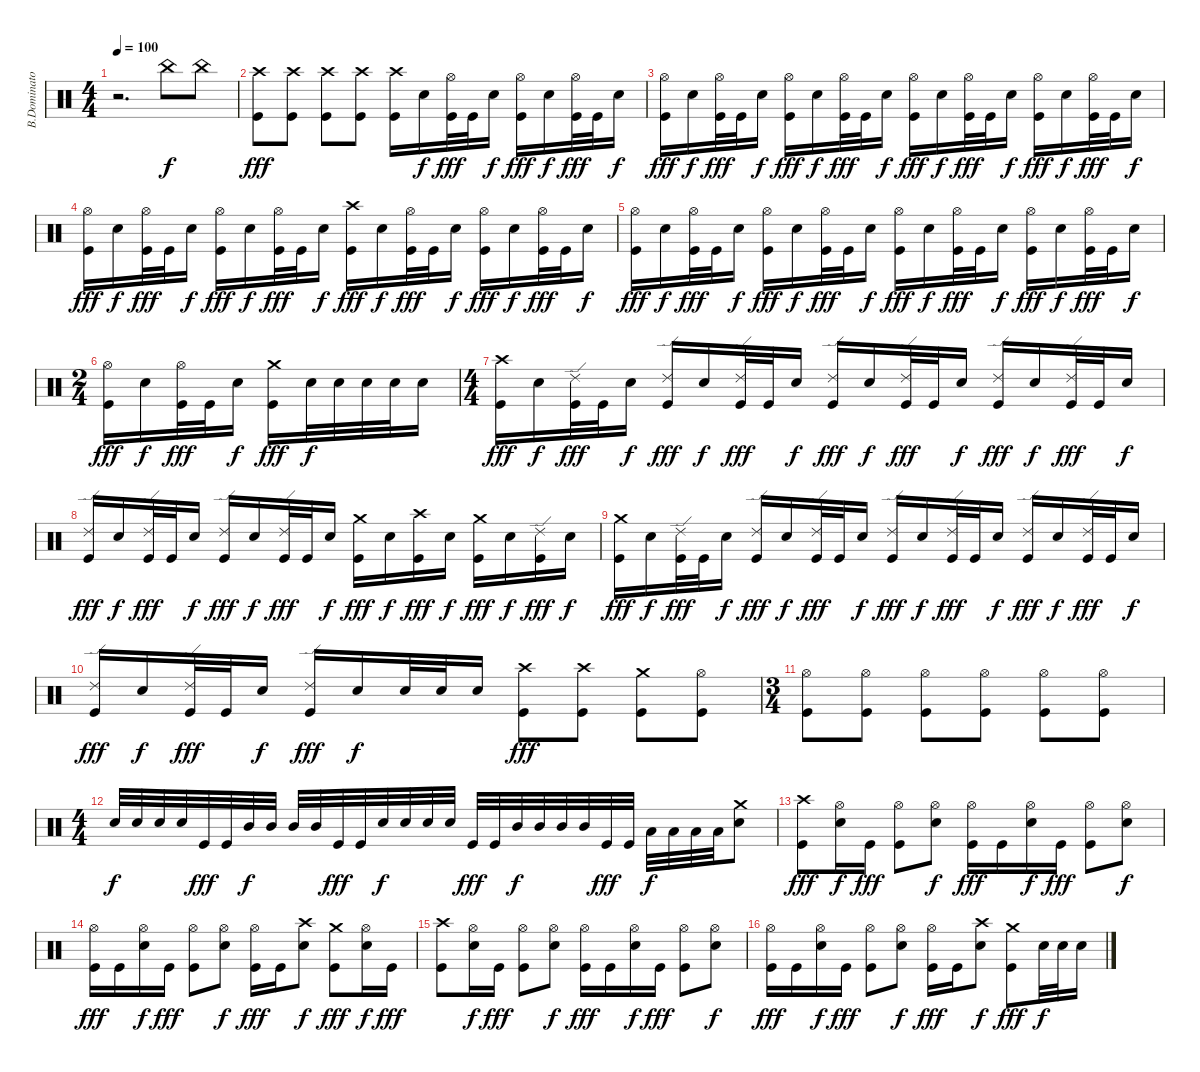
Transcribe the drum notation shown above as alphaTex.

\track ("B.Dominator" "B.Dominato") {instrument percussion}
\staff {score}
\articulation defaults
\ts (4 4)
\tempo 100
\clef neutral
\ks c
r.2{d dy f} "China (hit)".8 "China (hit)".8 |
("Crash high (hit)" "Kick (hit)").8{dy fff} ("Crash high (hit)" "Kick (hit)").8 ("Crash high (hit)" "Kick (hit)").8 ("Crash high (hit)" "Kick (hit)").8 ("Crash high (hit)" "Kick (hit)").16 "Snare (hit) 2".16{dy f} ("Hi-Hat (open)" "Kick (hit)").32{dy fff} "Kick (hit)".32 "Snare (hit) 2".16{dy f} ("Hi-Hat (open)" "Kick (hit)").16{dy fff} "Snare (hit) 2".16{dy f} ("Hi-Hat (open)" "Kick (hit)").32{dy fff} "Kick (hit)".32 "Snare (hit) 2".16{dy f} |
("Hi-Hat (open)" "Kick (hit)").16{dy fff} "Snare (hit) 2".16{dy f} ("Hi-Hat (open)" "Kick (hit)").32{dy fff} "Kick (hit)".32 "Snare (hit) 2".16{dy f} ("Hi-Hat (open)" "Kick (hit)").16{dy fff} "Snare (hit) 2".16{dy f} ("Hi-Hat (open)" "Kick (hit)").32{dy fff} "Kick (hit)".32 "Snare (hit) 2".16{dy f} ("Hi-Hat (open)" "Kick (hit)").16{dy fff} "Snare (hit) 2".16{dy f} ("Hi-Hat (open)" "Kick (hit)").32{dy fff} "Kick (hit)".32 "Snare (hit) 2".16{dy f} ("Hi-Hat (open)" "Kick (hit)").16{dy fff} "Snare (hit) 2".16{dy f} ("Hi-Hat (open)" "Kick (hit)").32{dy fff} "Kick (hit)".32 "Snare (hit) 2".16{dy f} |
("Hi-Hat (open)" "Kick (hit)").16{dy fff} "Snare (hit) 2".16{dy f} ("Hi-Hat (open)" "Kick (hit)").32{dy fff} "Kick (hit)".32 "Snare (hit) 2".16{dy f} ("Hi-Hat (open)" "Kick (hit)").16{dy fff} "Snare (hit) 2".16{dy f} ("Hi-Hat (open)" "Kick (hit)").32{dy fff} "Kick (hit)".32 "Snare (hit) 2".16{dy f} ("Crash high (hit)" "Kick (hit)").16{dy fff} "Snare (hit) 2".16{dy f} ("Hi-Hat (open)" "Kick (hit)").32{dy fff} "Kick (hit)".32 "Snare (hit) 2".16{dy f} ("Hi-Hat (open)" "Kick (hit)").16{dy fff} "Snare (hit) 2".16{dy f} ("Hi-Hat (open)" "Kick (hit)").32{dy fff} "Kick (hit)".32 "Snare (hit) 2".16{dy f} |
("Hi-Hat (open)" "Kick (hit)").16{dy fff} "Snare (hit) 2".16{dy f} ("Hi-Hat (open)" "Kick (hit)").32{dy fff} "Kick (hit)".32 "Snare (hit) 2".16{dy f} ("Hi-Hat (open)" "Kick (hit)").16{dy fff} "Snare (hit) 2".16{dy f} ("Hi-Hat (open)" "Kick (hit)").32{dy fff} "Kick (hit)".32 "Snare (hit) 2".16{dy f} ("Hi-Hat (open)" "Kick (hit)").16{dy fff} "Snare (hit) 2".16{dy f} ("Hi-Hat (open)" "Kick (hit)").32{dy fff} "Kick (hit)".32 "Snare (hit) 2".16{dy f} ("Hi-Hat (open)" "Kick (hit)").16{dy fff} "Snare (hit) 2".16{dy f} ("Hi-Hat (open)" "Kick (hit)").32{dy fff} "Kick (hit)".32 "Snare (hit) 2".16{dy f} |
\ts (2 4)
("Hi-Hat (open)" "Kick (hit)").16{dy fff} "Snare (hit) 2".16{dy f} ("Hi-Hat (open)" "Kick (hit)").32{dy fff} "Kick (hit)".32 "Snare (hit) 2".16{dy f} ("Crash medium (hit)" "Kick (hit)").16{dy fff} "Snare (hit) 2".32{dy f} "Snare (hit) 2".32 "Snare (hit) 2".32 "Snare (hit) 2".32 "Snare (hit) 2".16 |
\ts (4 4)
("Crash high (hit)" "Kick (hit)").16{dy fff} "Snare (hit) 2".16{dy f} ("Ride (edge) 2" "Kick (hit)").32{dy fff} "Kick (hit)".32 "Snare (hit) 2".16{dy f} ("Ride (edge) 2" "Kick (hit)").16{dy fff} "Snare (hit) 2".16{dy f} ("Ride (edge) 2" "Kick (hit)").32{dy fff} "Kick (hit)".32 "Snare (hit) 2".16{dy f} ("Ride (edge) 2" "Kick (hit)").16{dy fff} "Snare (hit) 2".16{dy f} ("Ride (edge) 2" "Kick (hit)").32{dy fff} "Kick (hit)".32 "Snare (hit) 2".16{dy f} ("Ride (edge) 2" "Kick (hit)").16{dy fff} "Snare (hit) 2".16{dy f} ("Ride (edge) 2" "Kick (hit)").32{dy fff} "Kick (hit)".32 "Snare (hit) 2".16{dy f} |
("Ride (edge) 2" "Kick (hit)").16{dy fff} "Snare (hit) 2".16{dy f} ("Ride (edge) 2" "Kick (hit)").32{dy fff} "Kick (hit)".32 "Snare (hit) 2".16{dy f} ("Ride (edge) 2" "Kick (hit)").16{dy fff} "Snare (hit) 2".16{dy f} ("Ride (edge) 2" "Kick (hit)").32{dy fff} "Kick (hit)".32 "Snare (hit) 2".16{dy f} ("Crash medium (hit)" "Kick (hit)").16{dy fff} "Snare (hit) 2".16{dy f} ("Crash high (hit)" "Kick (hit)").16{dy fff} "Snare (hit) 2".16{dy f} ("Crash medium (hit)" "Kick (hit)").16{dy fff} "Snare (hit) 2".16{dy f} ("Ride (edge) 2" "Kick (hit)").16{dy fff} "Snare (hit) 2".16{dy f} |
("Crash medium (hit)" "Kick (hit)").16{dy fff} "Snare (hit) 2".16{dy f} ("Ride (edge) 2" "Kick (hit)").32{dy fff} "Kick (hit)".32 "Snare (hit) 2".16{dy f} ("Ride (edge) 2" "Kick (hit)").16{dy fff} "Snare (hit) 2".16{dy f} ("Ride (edge) 2" "Kick (hit)").32{dy fff} "Kick (hit)".32 "Snare (hit) 2".16{dy f} ("Ride (edge) 2" "Kick (hit)").16{dy fff} "Snare (hit) 2".16{dy f} ("Ride (edge) 2" "Kick (hit)").32{dy fff} "Kick (hit)".32 "Snare (hit) 2".16{dy f} ("Ride (edge) 2" "Kick (hit)").16{dy fff} "Snare (hit) 2".16{dy f} ("Ride (edge) 2" "Kick (hit)").32{dy fff} "Kick (hit)".32 "Snare (hit) 2".16{dy f} |
("Ride (edge) 2" "Kick (hit)").16{dy fff} "Snare (hit) 2".16{dy f} ("Ride (edge) 2" "Kick (hit)").32{dy fff} "Kick (hit)".32 "Snare (hit) 2".16{dy f} ("Ride (edge) 2" "Kick (hit)").16{dy fff} "Snare (hit) 2".16{dy f} "Snare (hit) 2".32 "Snare (hit) 2".32 "Snare (hit) 2".16 ("Crash high (hit)" "Kick (hit)").8{dy fff} ("Crash high (hit)" "Kick (hit)").8 ("Crash medium (hit)" "Kick (hit)").8 ("Hi-Hat (open)" "Kick (hit)").8 |
\ts (3 4)
("Hi-Hat (open)" "Kick (hit)").8 ("Hi-Hat (open)" "Kick (hit)").8 ("Hi-Hat (open)" "Kick (hit)").8 ("Hi-Hat (open)" "Kick (hit)").8 ("Hi-Hat (open)" "Kick (hit)").8 ("Hi-Hat (open)" "Kick (hit)").8 |
\ts (4 4)
"Snare (hit) 2".32{dy f} "Snare (hit) 2".32 "Snare (hit) 2".32 "Snare (hit) 2".32 "Kick (hit)".32{dy fff} "Kick (hit)".32 "Mid Tom (hit)".32{dy f} "Mid Tom (hit)".32 "Mid Tom (hit)".32 "Mid Tom (hit)".32 "Kick (hit)".32{dy fff} "Kick (hit)".32 "Snare (hit) 2".32{dy f} "Snare (hit) 2".32 "Snare (hit) 2".32 "Snare (hit) 2".32 "Kick (hit)".32{dy fff} "Kick (hit)".32 "Mid Tom (hit)".32{dy f} "Mid Tom (hit)".32 "Mid Tom (hit)".32 "Mid Tom (hit)".32 "Kick (hit)".32{dy fff} "Kick (hit)".32 "Low Tom (hit)".32{dy f} "Low Tom (hit)".32 "Low Tom (hit)".32 "Low Tom (hit)".32 ("Crash medium (hit)" "Snare (hit) 2").8 |
("Crash high (hit)" "Kick (hit)").8{dy fff} ("Hi-Hat (open)" "Snare (hit) 2").16{dy f} "Kick (hit)".16{dy fff} ("Hi-Hat (open)" "Kick (hit)").8 ("Hi-Hat (open)" "Snare (hit) 2").8{dy f} ("Hi-Hat (open)" "Kick (hit)").16{dy fff} "Kick (hit)".16 ("Hi-Hat (open)" "Snare (hit) 2").16{dy f} "Kick (hit)".16{dy fff} ("Hi-Hat (open)" "Kick (hit)").8 ("Hi-Hat (open)" "Snare (hit) 2").8{dy f} |
("Hi-Hat (open)" "Kick (hit)").16{dy fff} "Kick (hit)".16 ("Hi-Hat (open)" "Snare (hit) 2").16{dy f} "Kick (hit)".16{dy fff} ("Hi-Hat (open)" "Kick (hit)").8 ("Hi-Hat (open)" "Snare (hit) 2").8{dy f} ("Hi-Hat (open)" "Kick (hit)").16{dy fff} "Kick (hit)".16 ("Crash high (hit)" "Snare (hit) 2").8{dy f} ("Crash medium (hit)" "Kick (hit)").8{dy fff} ("Hi-Hat (open)" "Snare (hit) 2").16{dy f} "Kick (hit)".16{dy fff} |
("Crash high (hit)" "Kick (hit)").8 ("Hi-Hat (open)" "Snare (hit) 2").16{dy f} "Kick (hit)".16{dy fff} ("Hi-Hat (open)" "Kick (hit)").8 ("Hi-Hat (open)" "Snare (hit) 2").8{dy f} ("Hi-Hat (open)" "Kick (hit)").16{dy fff} "Kick (hit)".16 ("Hi-Hat (open)" "Snare (hit) 2").16{dy f} "Kick (hit)".16{dy fff} ("Hi-Hat (open)" "Kick (hit)").8 ("Hi-Hat (open)" "Snare (hit) 2").8{dy f} |
("Hi-Hat (open)" "Kick (hit)").16{dy fff} "Kick (hit)".16 ("Hi-Hat (open)" "Snare (hit) 2").16{dy f} "Kick (hit)".16{dy fff} ("Hi-Hat (open)" "Kick (hit)").8 ("Hi-Hat (open)" "Snare (hit) 2").8{dy f} ("Hi-Hat (open)" "Kick (hit)").16{dy fff} "Kick (hit)".16 ("Crash high (hit)" "Snare (hit) 2").8{dy f} ("Crash medium (hit)" "Kick (hit)").8{dy fff} "Snare (hit) 2".32{dy f} "Snare (hit) 2".32 "Snare (hit) 2".16
